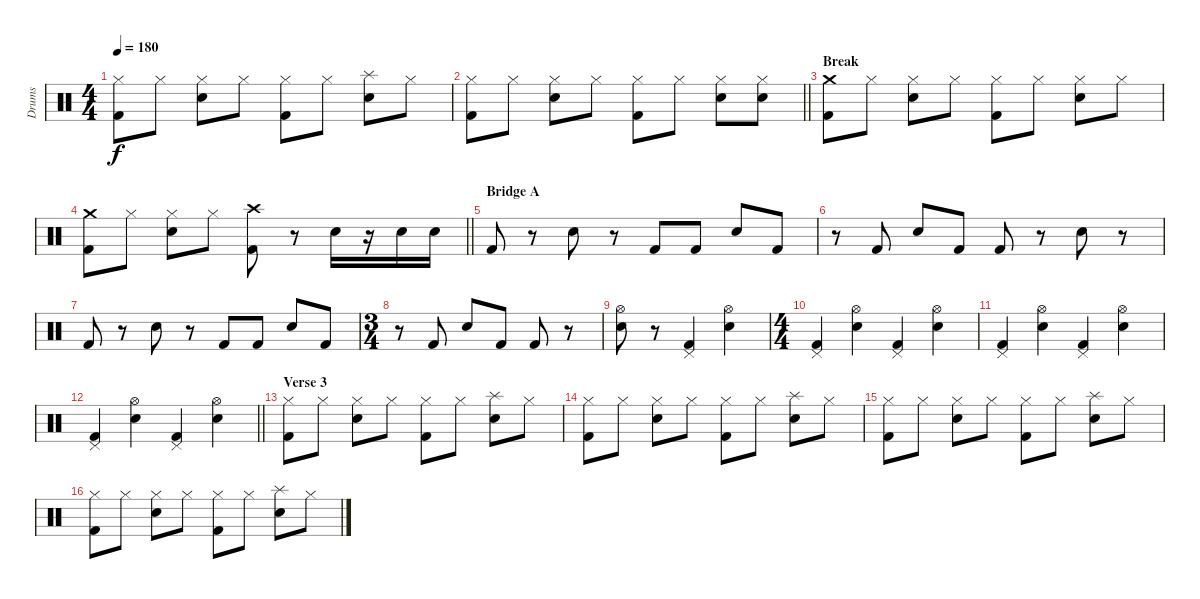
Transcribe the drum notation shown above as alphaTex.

\track ("Drums" "Drums") {instrument percussion}
\staff {score}
\articulation defaults
\ts (4 4)
\tempo 180
\clef neutral
\ks c
("Hi-Hat (closed)" "Kick (hit) 2").8{dy f} "Hi-Hat (closed)".8 ("Hi-Hat (closed)" "Snare (hit) 2").8 "Hi-Hat (closed)".8 ("Hi-Hat (closed)" "Kick (hit) 2").8 "Hi-Hat (closed)".8 ("Splash (hit)" "Snare (hit) 2").8 "Hi-Hat (closed)".8 |
\barLineRight lightlight
("Hi-Hat (closed)" "Kick (hit) 2").8 "Hi-Hat (closed)".8 ("Hi-Hat (closed)" "Snare (hit) 2").8 "Hi-Hat (closed)".8 ("Hi-Hat (closed)" "Kick (hit) 2").8 "Hi-Hat (closed)".8 ("Hi-Hat (closed)" "Snare (hit) 2").8 ("Hi-Hat (closed)" "Snare (hit) 2").8 |
\section ("" "Break")
("Crash medium (hit)" "Kick (hit) 2").8 "Hi-Hat (closed)".8 ("Hi-Hat (closed)" "Snare (hit) 2").8 "Hi-Hat (closed)".8 ("Hi-Hat (closed)" "Kick (hit) 2").8 "Hi-Hat (closed)".8 ("Hi-Hat (closed)" "Snare (hit) 2").8 "Hi-Hat (closed)".8 |
\barLineRight lightlight
("Crash medium (hit)" "Kick (hit) 2").8 "Hi-Hat (closed)".8 ("Hi-Hat (closed)" "Snare (hit) 2").8 "Hi-Hat (closed)".8 ("Crash high (hit)" "Kick (hit) 2").8 r.8 "Snare (hit) 2".16 r.16 "Snare (hit) 2".16 "Snare (hit) 2".16 |
\section ("" "Bridge A")
"Kick (hit) 2".8 r.8 "Snare (hit) 2".8 r.8 "Kick (hit) 2".8 "Kick (hit) 2".8 "Snare (hit) 2".8 "Kick (hit) 2".8 |
r.8 "Kick (hit) 2".8 "Snare (hit) 2".8 "Kick (hit) 2".8 "Kick (hit) 2".8 r.8 "Snare (hit) 2".8 r.8 |
"Kick (hit) 2".8 r.8 "Snare (hit) 2".8 r.8 "Kick (hit) 2".8 "Kick (hit) 2".8 "Snare (hit) 2".8 "Kick (hit) 2".8 |
\ts (3 4)
r.8 "Kick (hit) 2".8 "Snare (hit) 2".8 "Kick (hit) 2".8 "Kick (hit) 2".8 r.8 |
("Hi-Hat (open)" "Snare (hit) 2").8 r.8 ("Pedal Hi-Hat (hit)" "Kick (hit) 2").4 ("Hi-Hat (open)" "Snare (hit) 2").4 |
\ts (4 4)
("Pedal Hi-Hat (hit)" "Kick (hit) 2").4 ("Hi-Hat (open)" "Snare (hit) 2").4 ("Pedal Hi-Hat (hit)" "Kick (hit) 2").4 ("Hi-Hat (open)" "Snare (hit) 2").4 |
("Pedal Hi-Hat (hit)" "Kick (hit) 2").4 ("Hi-Hat (open)" "Snare (hit) 2").4 ("Pedal Hi-Hat (hit)" "Kick (hit) 2").4 ("Hi-Hat (open)" "Snare (hit) 2").4 |
\barLineRight lightlight
("Pedal Hi-Hat (hit)" "Kick (hit) 2").4 ("Hi-Hat (open)" "Snare (hit) 2").4 ("Pedal Hi-Hat (hit)" "Kick (hit) 2").4 ("Hi-Hat (open)" "Snare (hit) 2").4 |
\section ("" "Verse 3")
("Hi-Hat (closed)" "Kick (hit) 2").8 "Hi-Hat (closed)".8 ("Hi-Hat (closed)" "Snare (hit) 2").8 "Hi-Hat (closed)".8 ("Hi-Hat (closed)" "Kick (hit) 2").8 "Hi-Hat (closed)".8 ("Splash (hit)" "Snare (hit) 2").8 "Hi-Hat (closed)".8 |
("Hi-Hat (closed)" "Kick (hit) 2").8 "Hi-Hat (closed)".8 ("Hi-Hat (closed)" "Snare (hit) 2").8 "Hi-Hat (closed)".8 ("Hi-Hat (closed)" "Kick (hit) 2").8 "Hi-Hat (closed)".8 ("Splash (hit)" "Snare (hit) 2").8 "Hi-Hat (closed)".8 |
("Hi-Hat (closed)" "Kick (hit) 2").8 "Hi-Hat (closed)".8 ("Hi-Hat (closed)" "Snare (hit) 2").8 "Hi-Hat (closed)".8 ("Hi-Hat (closed)" "Kick (hit) 2").8 "Hi-Hat (closed)".8 ("Splash (hit)" "Snare (hit) 2").8 "Hi-Hat (closed)".8 |
("Hi-Hat (closed)" "Kick (hit) 2").8 "Hi-Hat (closed)".8 ("Hi-Hat (closed)" "Snare (hit) 2").8 "Hi-Hat (closed)".8 ("Hi-Hat (closed)" "Kick (hit) 2").8 "Hi-Hat (closed)".8 ("Splash (hit)" "Snare (hit) 2").8 "Hi-Hat (closed)".8
